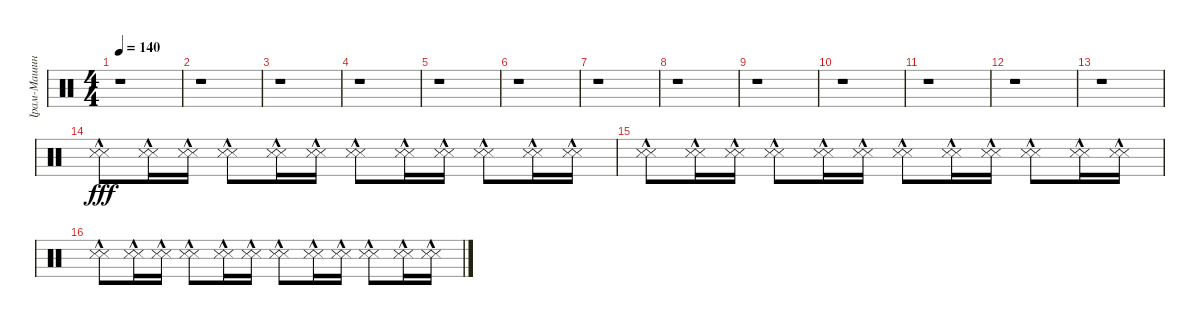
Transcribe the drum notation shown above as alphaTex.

\track ("Драм-Машина" "Драм-Машин") {instrument percussion}
\staff {score}
\articulation defaults
\ts (4 4)
\tempo 140
\clef neutral
\ks c
r.1{dy fff} |
r.1 |
r.1 |
r.1 |
r.1 |
r.1 |
r.1 |
r.1 |
r.1 |
r.1 |
r.1 |
r.1 |
r.1 |
("Snare (side stick) 3"{hac} "Metronome (hit)"{hac}).8 ("Snare (side stick) 3"{hac} "Metronome (hit)"{hac}).16 ("Snare (side stick) 3"{hac} "Metronome (hit)"{hac}).16 ("Snare (side stick) 3"{hac} "Metronome (hit)"{hac}).8 ("Snare (side stick) 3"{hac} "Metronome (hit)"{hac}).16 ("Snare (side stick) 3"{hac} "Metronome (hit)"{hac}).16 ("Snare (side stick) 3"{hac} "Metronome (hit)"{hac}).8 ("Snare (side stick) 3"{hac} "Metronome (hit)"{hac}).16 ("Snare (side stick) 3"{hac} "Metronome (hit)"{hac}).16 ("Snare (side stick) 3"{hac} "Metronome (hit)"{hac}).8 ("Snare (side stick) 3"{hac} "Metronome (hit)"{hac}).16 ("Snare (side stick) 3"{hac} "Metronome (hit)"{hac}).16 |
("Snare (side stick) 3"{hac} "Metronome (hit)"{hac}).8 ("Snare (side stick) 3"{hac} "Metronome (hit)"{hac}).16 ("Snare (side stick) 3"{hac} "Metronome (hit)"{hac}).16 ("Snare (side stick) 3"{hac} "Metronome (hit)"{hac}).8 ("Snare (side stick) 3"{hac} "Metronome (hit)"{hac}).16 ("Snare (side stick) 3"{hac} "Metronome (hit)"{hac}).16 ("Snare (side stick) 3"{hac} "Metronome (hit)"{hac}).8 ("Snare (side stick) 3"{hac} "Metronome (hit)"{hac}).16 ("Snare (side stick) 3"{hac} "Metronome (hit)"{hac}).16 ("Snare (side stick) 3"{hac} "Metronome (hit)"{hac}).8 ("Snare (side stick) 3"{hac} "Metronome (hit)"{hac}).16 ("Snare (side stick) 3"{hac} "Metronome (hit)"{hac}).16 |
("Snare (side stick) 3"{hac} "Metronome (hit)"{hac}).8 ("Snare (side stick) 3"{hac} "Metronome (hit)"{hac}).16 ("Snare (side stick) 3"{hac} "Metronome (hit)"{hac}).16 ("Snare (side stick) 3"{hac} "Metronome (hit)"{hac}).8 ("Snare (side stick) 3"{hac} "Metronome (hit)"{hac}).16 ("Snare (side stick) 3"{hac} "Metronome (hit)"{hac}).16 ("Snare (side stick) 3"{hac} "Metronome (hit)"{hac}).8 ("Snare (side stick) 3"{hac} "Metronome (hit)"{hac}).16 ("Snare (side stick) 3"{hac} "Metronome (hit)"{hac}).16 ("Snare (side stick) 3"{hac} "Metronome (hit)"{hac}).8 ("Snare (side stick) 3"{hac} "Metronome (hit)"{hac}).16 ("Snare (side stick) 3"{hac} "Metronome (hit)"{hac}).16
